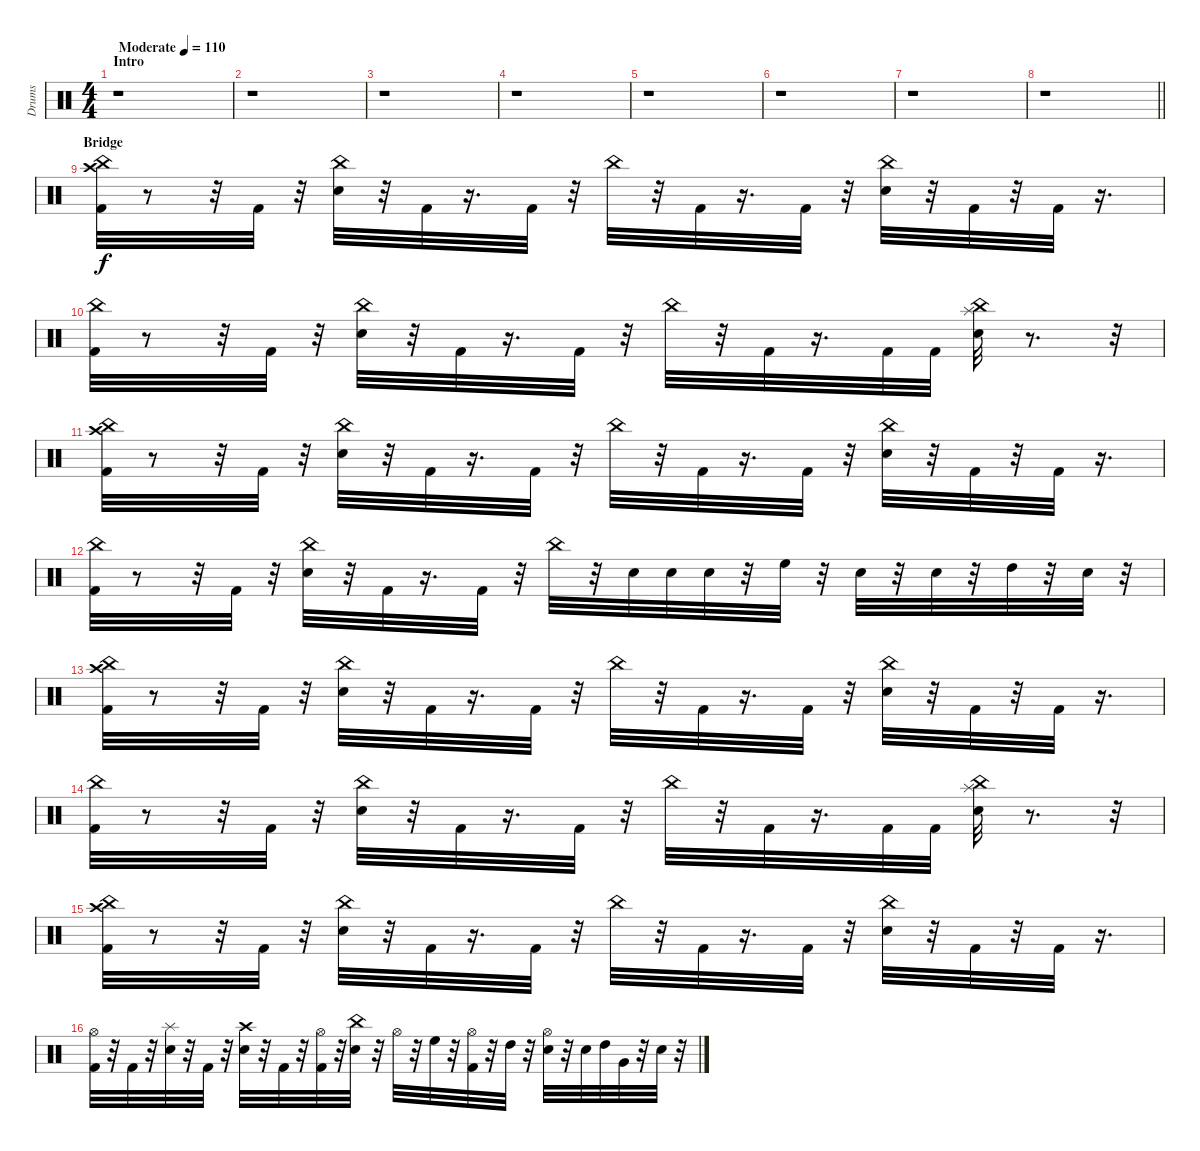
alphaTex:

\track ("Drums" "Drums") {instrument percussion}
\staff {score}
\articulation defaults
\ts (4 4)
\section ("" "Intro")
\tempo (110 "Moderate")
\clef neutral
\ks c
r.1{dy f} |
r.1 |
r.1 |
r.1 |
r.1 |
r.1 |
r.1 |
\barLineRight lightlight
r.1 |
\section ("" "Bridge")
("Kick (hit) 2" "Crash high (hit)" "China (hit)").32 r.8 r.32 "Kick (hit) 2".32 r.32 ("Snare (hit) 2" "China (hit)").32 r.32 "Kick (hit) 2".32 r.16{d} "Kick (hit) 2".32 r.32 "China (hit)".32 r.32 "Kick (hit) 2".32 r.16{d} "Kick (hit) 2".32 r.32 ("Snare (hit) 2" "China (hit)").32 r.32 "Kick (hit) 2".32 r.32 "Kick (hit) 2".32 r.16{d} |
("Kick (hit) 2" "China (hit)").32 r.8 r.32 "Kick (hit) 2".32 r.32 ("Snare (hit) 2" "China (hit)").32 r.32 "Kick (hit) 2".32 r.16{d} "Kick (hit) 2".32 r.32 "China (hit)".32 r.32 "Kick (hit) 2".32 r.16{d} "Kick (hit) 2".32 "Kick (hit) 2".32 ("Snare (hit) 2" "China (hit)" "Splash (hit)").32 r.8{d} r.32 |
("Kick (hit) 2" "Crash high (hit)" "China (hit)").32 r.8 r.32 "Kick (hit) 2".32 r.32 ("Snare (hit) 2" "China (hit)").32 r.32 "Kick (hit) 2".32 r.16{d} "Kick (hit) 2".32 r.32 "China (hit)".32 r.32 "Kick (hit) 2".32 r.16{d} "Kick (hit) 2".32 r.32 ("Snare (hit) 2" "China (hit)").32 r.32 "Kick (hit) 2".32 r.32 "Kick (hit) 2".32 r.16{d} |
("Kick (hit) 2" "China (hit)").32 r.8 r.32 "Kick (hit) 2".32 r.32 ("Snare (hit) 2" "China (hit)").32 r.32 "Kick (hit) 2".32 r.16{d} "Kick (hit) 2".32 r.32 "China (hit)".32 r.32 "Snare (hit) 2".32 "Snare (hit) 2".32 "Snare (hit) 2".32 r.32 "High Floor Tom (hit)".32 r.32 "Snare (hit) 2".32 r.32 "Snare (hit) 2".32 r.32 "High Tom (hit)".32 r.32 "Snare (hit) 2".32 r.32 |
("Kick (hit) 2" "Crash high (hit)" "China (hit)").32 r.8 r.32 "Kick (hit) 2".32 r.32 ("Snare (hit) 2" "China (hit)").32 r.32 "Kick (hit) 2".32 r.16{d} "Kick (hit) 2".32 r.32 "China (hit)".32 r.32 "Kick (hit) 2".32 r.16{d} "Kick (hit) 2".32 r.32 ("Snare (hit) 2" "China (hit)").32 r.32 "Kick (hit) 2".32 r.32 "Kick (hit) 2".32 r.16{d} |
("Kick (hit) 2" "China (hit)").32 r.8 r.32 "Kick (hit) 2".32 r.32 ("Snare (hit) 2" "China (hit)").32 r.32 "Kick (hit) 2".32 r.16{d} "Kick (hit) 2".32 r.32 "China (hit)".32 r.32 "Kick (hit) 2".32 r.16{d} "Kick (hit) 2".32 "Kick (hit) 2".32 ("Snare (hit) 2" "China (hit)" "Splash (hit)").32 r.8{d} r.32 |
("Kick (hit) 2" "Crash high (hit)" "China (hit)").32 r.8 r.32 "Kick (hit) 2".32 r.32 ("Snare (hit) 2" "China (hit)").32 r.32 "Kick (hit) 2".32 r.16{d} "Kick (hit) 2".32 r.32 "China (hit)".32 r.32 "Kick (hit) 2".32 r.16{d} "Kick (hit) 2".32 r.32 ("Snare (hit) 2" "China (hit)").32 r.32 "Kick (hit) 2".32 r.32 "Kick (hit) 2".32 r.16{d} |
("Kick (hit) 2" "Hi-Hat (open)").32 r.32 "Kick (hit) 2".32 r.32 ("Snare (hit) 2" "Splash (hit)").32 r.32 "Kick (hit) 2".32 r.32 ("Snare (hit) 2" "Crash high (hit)").32 r.32 "Kick (hit) 2".32 r.32 ("Kick (hit) 2" "Hi-Hat (open)").32 r.32 ("Snare (hit) 2" "China (hit)").32 r.32 "Hi-Hat (open)".32 r.32 "High Floor Tom (hit)".32 r.32 ("Kick (hit) 2" "Hi-Hat (open)").32 r.32 "High Tom (hit)".32 r.32 ("Snare (hit) 2" "Hi-Hat (open)").32 r.32 "Snare (hit) 2".32 "High Tom (hit)".32 "Very Low Tom (hit)".32 r.32 "Snare (hit) 2".32 r.32
